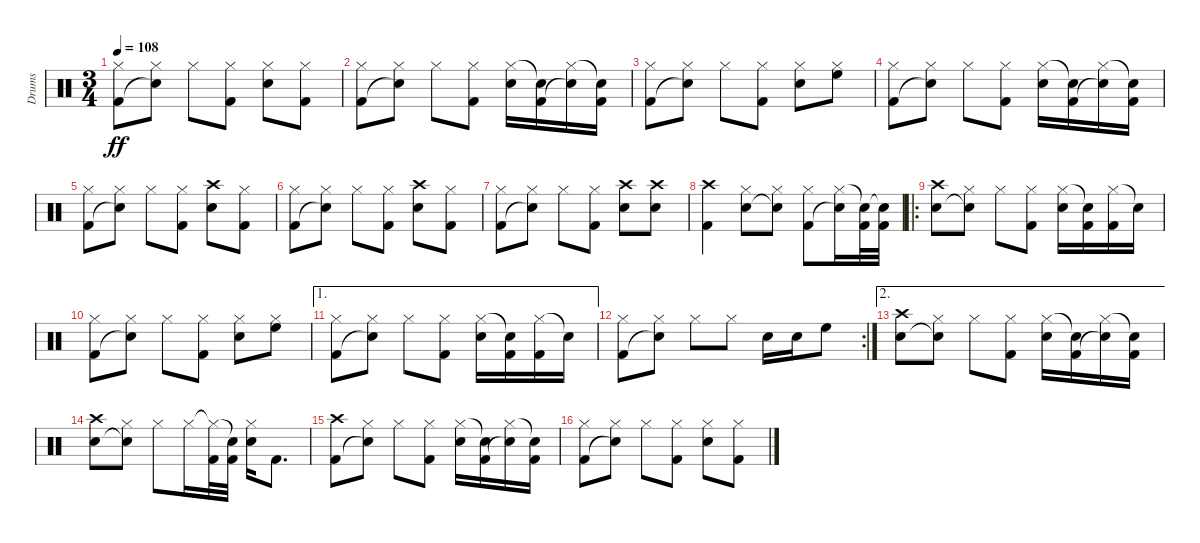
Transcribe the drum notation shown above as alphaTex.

\track ("Drums" "Drums") {instrument percussion}
\staff {score}
\articulation defaults
\ts (3 4)
\tempo 108
\clef neutral
\ks c
("Hi-Hat (closed)" "Kick (hit) 2").8{dy ff} ("Hi-Hat (closed)" "Snare (hit)"{t}).8 "Hi-Hat (closed)".8 ("Hi-Hat (closed)" "Kick (hit) 2").8 ("Hi-Hat (closed)" "Snare (hit) 2").8 ("Hi-Hat (closed)" "Kick (hit) 2").8 |
("Hi-Hat (closed)" "Kick (hit) 2").8 ("Hi-Hat (closed)" "Snare (hit)"{t}).8 "Hi-Hat (closed)".8 ("Hi-Hat (closed)" "Kick (hit) 2").8 ("Hi-Hat (closed)" "Snare (hit) 2").16 ("Snare (hit)"{t} "Kick (hit) 2").16 ("Hi-Hat (closed)" "Snare (hit)"{t}).16 ("Snare (hit)"{t} "Kick (hit) 2").16 |
("Hi-Hat (closed)" "Kick (hit) 2").8 ("Hi-Hat (closed)" "Snare (hit)"{t}).8 "Hi-Hat (closed)".8 ("Hi-Hat (closed)" "Kick (hit) 2").8 ("Hi-Hat (closed)" "Snare (hit) 2").8 ("Hi-Hat (closed)" "High Floor Tom (hit)").8 |
("Hi-Hat (closed)" "Kick (hit) 2").8 ("Hi-Hat (closed)" "Snare (hit)"{t}).8 "Hi-Hat (closed)".8 ("Hi-Hat (closed)" "Kick (hit) 2").8 ("Hi-Hat (closed)" "Snare (hit) 2").16 ("Snare (hit)"{t} "Kick (hit) 2").16 ("Hi-Hat (closed)" "Snare (hit)"{t}).16 ("Snare (hit)"{t} "Kick (hit) 2").16 |
("Hi-Hat (closed)" "Kick (hit) 2").8 ("Hi-Hat (closed)" "Snare (hit)"{t}).8 "Hi-Hat (closed)".8 ("Hi-Hat (closed)" "Kick (hit) 2").8 ("Crash high (hit)" "Snare (hit) 2").8 ("Hi-Hat (closed)" "Kick (hit) 2").8 |
("Hi-Hat (closed)" "Kick (hit) 2").8 ("Hi-Hat (closed)" "Snare (hit)"{t}).8 "Hi-Hat (closed)".8 ("Hi-Hat (closed)" "Kick (hit) 2").8 ("Crash high (hit)" "Snare (hit) 2").8 ("Hi-Hat (closed)" "Kick (hit) 2").8 |
("Hi-Hat (closed)" "Kick (hit) 2").8 ("Hi-Hat (closed)" "Snare (hit)"{t}).8 "Hi-Hat (closed)".8 ("Hi-Hat (closed)" "Kick (hit) 2").8 ("Crash high (hit)" "Snare (hit) 2").8 ("Crash high (hit)" "Snare (hit) 2").8 |
("Crash high (hit)" "Kick (hit) 2").4 ("Hi-Hat (closed)" "Snare (hit) 2").8 ("Hi-Hat (closed)" "Snare (hit)"{t}).8 ("Hi-Hat (closed)" "Kick (hit) 2").8 ("Hi-Hat (closed)" "Snare (hit)"{t}).16 ("Snare (hit)"{t} "Kick (hit) 2").32 ("Snare (hit)"{t} "Kick (hit) 2").32 |
\ro
("Crash high (hit)" "Snare (hit) 2").8 ("Hi-Hat (closed)" "Snare (hit)"{t}).8 "Hi-Hat (closed)".8 ("Hi-Hat (closed)" "Kick (hit) 2").8 ("Hi-Hat (closed)" "Snare (hit) 2").16 ("Snare (hit)"{t} "Kick (hit) 2").16 ("Hi-Hat (closed)" "Kick (hit) 2").16 "Snare (hit)"{t}.16 |
("Hi-Hat (closed)" "Kick (hit) 2").8 ("Hi-Hat (closed)" "Snare (hit)"{t}).8 "Hi-Hat (closed)".8 ("Hi-Hat (closed)" "Kick (hit) 2").8 ("Hi-Hat (closed)" "Snare (hit) 2").8 ("Hi-Hat (closed)" "High Floor Tom (hit)").8 |
\ae 1
("Hi-Hat (closed)" "Kick (hit) 2").8 ("Hi-Hat (closed)" "Snare (hit)"{t}).8 "Hi-Hat (closed)".8 ("Hi-Hat (closed)" "Kick (hit) 2").8 ("Hi-Hat (closed)" "Snare (hit) 2").16 ("Snare (hit)"{t} "Kick (hit) 2").16 ("Hi-Hat (closed)" "Kick (hit) 2").16 "Snare (hit)"{t}.16 |
\rc 2
("Hi-Hat (closed)" "Kick (hit) 2").8 ("Hi-Hat (closed)" "Snare (hit)"{t}).8 "Hi-Hat (closed)".8 "Hi-Hat (closed)".8 "Snare (hit) 2".16 "Snare (hit) 2".16 "High Floor Tom (hit)".8 |
\ae 2
("Crash high (hit)" "Snare (hit) 2").8 ("Hi-Hat (closed)" "Snare (hit)"{t}).8 "Hi-Hat (closed)".8 ("Hi-Hat (closed)" "Kick (hit) 2").8 ("Hi-Hat (closed)" "Snare (hit) 2").16 ("Snare (hit)"{t} "Kick (hit) 2").16 ("Hi-Hat (closed)" "Snare (hit)"{t}).16 ("Snare (hit)"{t} "Kick (hit) 2").16 |
("Crash high (hit)" "Snare (hit) 2").8 ("Hi-Hat (closed)" "Snare (hit)"{t}).8 "Hi-Hat (closed)".8 "Hi-Hat (closed)".16 ("Hi-Hat (closed)"{t} "Kick (hit) 2").32 ("Snare (hit)"{t} "Kick (hit) 2").32 ("Hi-Hat (closed)" "Snare (hit) 2").16 "Kick (hit) 2".8{d} |
("Crash high (hit)" "Kick (hit) 2").8 ("Hi-Hat (closed)" "Snare (hit)"{t}).8 "Hi-Hat (closed)".8 ("Hi-Hat (closed)" "Kick (hit) 2").8 ("Hi-Hat (closed)" "Snare (hit) 2").16 ("Snare (hit)"{t} "Kick (hit) 2").16 ("Hi-Hat (closed)" "Snare (hit)"{t}).16 ("Snare (hit)"{t} "Kick (hit) 2").16 |
("Hi-Hat (closed)" "Kick (hit) 2").8 ("Hi-Hat (closed)" "Snare (hit)"{t}).8 "Hi-Hat (closed)".8 ("Hi-Hat (closed)" "Kick (hit) 2").8 ("Hi-Hat (closed)" "Snare (hit) 2").8 ("Hi-Hat (closed)" "Kick (hit) 2").8
